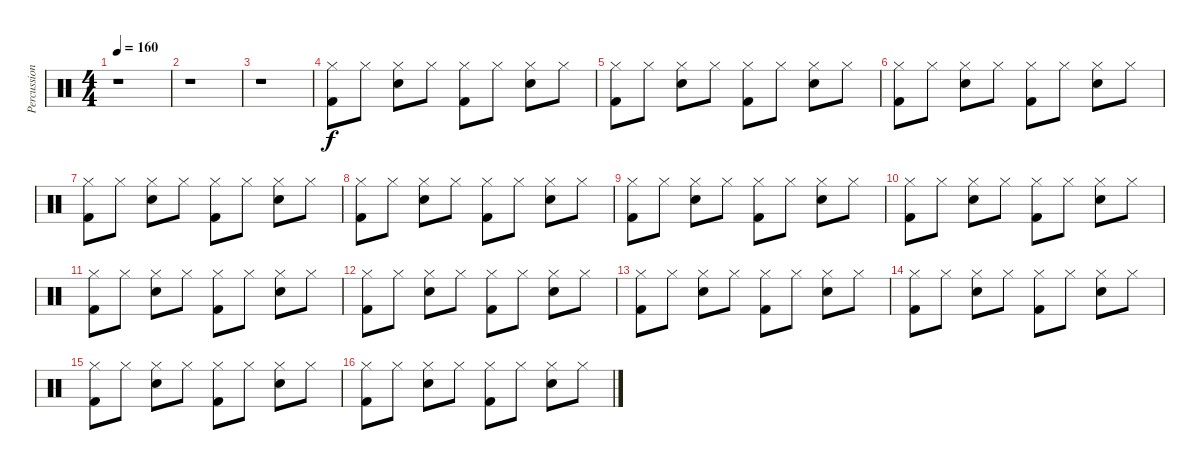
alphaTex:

\track ("Percussions" "Percussion") {instrument percussion}
\staff {score}
\articulation defaults
\ts (4 4)
\tempo 160
\clef neutral
\ks c
r.1{dy f} |
r.1 |
r.1 |
("Kick (hit) 2" "Hi-Hat (closed)").8 "Hi-Hat (closed)".8 ("Electric Snare (hit)" "Hi-Hat (closed)").8 "Hi-Hat (closed)".8 ("Kick (hit) 2" "Hi-Hat (closed)").8 "Hi-Hat (closed)".8 ("Electric Snare (hit)" "Hi-Hat (closed)").8 "Hi-Hat (closed)".8 |
("Kick (hit) 2" "Hi-Hat (closed)").8 "Hi-Hat (closed)".8 ("Electric Snare (hit)" "Hi-Hat (closed)").8 "Hi-Hat (closed)".8 ("Kick (hit) 2" "Hi-Hat (closed)").8 "Hi-Hat (closed)".8 ("Electric Snare (hit)" "Hi-Hat (closed)").8 "Hi-Hat (closed)".8 |
("Kick (hit) 2" "Hi-Hat (closed)").8 "Hi-Hat (closed)".8 ("Electric Snare (hit)" "Hi-Hat (closed)").8 "Hi-Hat (closed)".8 ("Kick (hit) 2" "Hi-Hat (closed)").8 "Hi-Hat (closed)".8 ("Electric Snare (hit)" "Hi-Hat (closed)").8 "Hi-Hat (closed)".8 |
("Kick (hit) 2" "Hi-Hat (closed)").8 "Hi-Hat (closed)".8 ("Electric Snare (hit)" "Hi-Hat (closed)").8 "Hi-Hat (closed)".8 ("Kick (hit) 2" "Hi-Hat (closed)").8 "Hi-Hat (closed)".8 ("Electric Snare (hit)" "Hi-Hat (closed)").8 "Hi-Hat (closed)".8 |
("Kick (hit) 2" "Hi-Hat (closed)").8 "Hi-Hat (closed)".8 ("Electric Snare (hit)" "Hi-Hat (closed)").8 "Hi-Hat (closed)".8 ("Kick (hit) 2" "Hi-Hat (closed)").8 "Hi-Hat (closed)".8 ("Electric Snare (hit)" "Hi-Hat (closed)").8 "Hi-Hat (closed)".8 |
("Kick (hit) 2" "Hi-Hat (closed)").8 "Hi-Hat (closed)".8 ("Electric Snare (hit)" "Hi-Hat (closed)").8 "Hi-Hat (closed)".8 ("Kick (hit) 2" "Hi-Hat (closed)").8 "Hi-Hat (closed)".8 ("Electric Snare (hit)" "Hi-Hat (closed)").8 "Hi-Hat (closed)".8 |
("Kick (hit) 2" "Hi-Hat (closed)").8 "Hi-Hat (closed)".8 ("Electric Snare (hit)" "Hi-Hat (closed)").8 "Hi-Hat (closed)".8 ("Kick (hit) 2" "Hi-Hat (closed)").8 "Hi-Hat (closed)".8 ("Electric Snare (hit)" "Hi-Hat (closed)").8 "Hi-Hat (closed)".8 |
("Kick (hit) 2" "Hi-Hat (closed)").8 "Hi-Hat (closed)".8 ("Electric Snare (hit)" "Hi-Hat (closed)").8 "Hi-Hat (closed)".8 ("Kick (hit) 2" "Hi-Hat (closed)").8 "Hi-Hat (closed)".8 ("Electric Snare (hit)" "Hi-Hat (closed)").8 "Hi-Hat (closed)".8 |
("Kick (hit) 2" "Hi-Hat (closed)").8 "Hi-Hat (closed)".8 ("Electric Snare (hit)" "Hi-Hat (closed)").8 "Hi-Hat (closed)".8 ("Kick (hit) 2" "Hi-Hat (closed)").8 "Hi-Hat (closed)".8 ("Electric Snare (hit)" "Hi-Hat (closed)").8 "Hi-Hat (closed)".8 |
("Kick (hit) 2" "Hi-Hat (closed)").8 "Hi-Hat (closed)".8 ("Electric Snare (hit)" "Hi-Hat (closed)").8 "Hi-Hat (closed)".8 ("Kick (hit) 2" "Hi-Hat (closed)").8 "Hi-Hat (closed)".8 ("Electric Snare (hit)" "Hi-Hat (closed)").8 "Hi-Hat (closed)".8 |
("Kick (hit) 2" "Hi-Hat (closed)").8 "Hi-Hat (closed)".8 ("Electric Snare (hit)" "Hi-Hat (closed)").8 "Hi-Hat (closed)".8 ("Kick (hit) 2" "Hi-Hat (closed)").8 "Hi-Hat (closed)".8 ("Electric Snare (hit)" "Hi-Hat (closed)").8 "Hi-Hat (closed)".8 |
("Kick (hit) 2" "Hi-Hat (closed)").8 "Hi-Hat (closed)".8 ("Electric Snare (hit)" "Hi-Hat (closed)").8 "Hi-Hat (closed)".8 ("Kick (hit) 2" "Hi-Hat (closed)").8 "Hi-Hat (closed)".8 ("Electric Snare (hit)" "Hi-Hat (closed)").8 "Hi-Hat (closed)".8 |
("Kick (hit) 2" "Hi-Hat (closed)").8 "Hi-Hat (closed)".8 ("Electric Snare (hit)" "Hi-Hat (closed)").8 "Hi-Hat (closed)".8 ("Kick (hit) 2" "Hi-Hat (closed)").8 "Hi-Hat (closed)".8 ("Electric Snare (hit)" "Hi-Hat (closed)").8 "Hi-Hat (closed)".8
